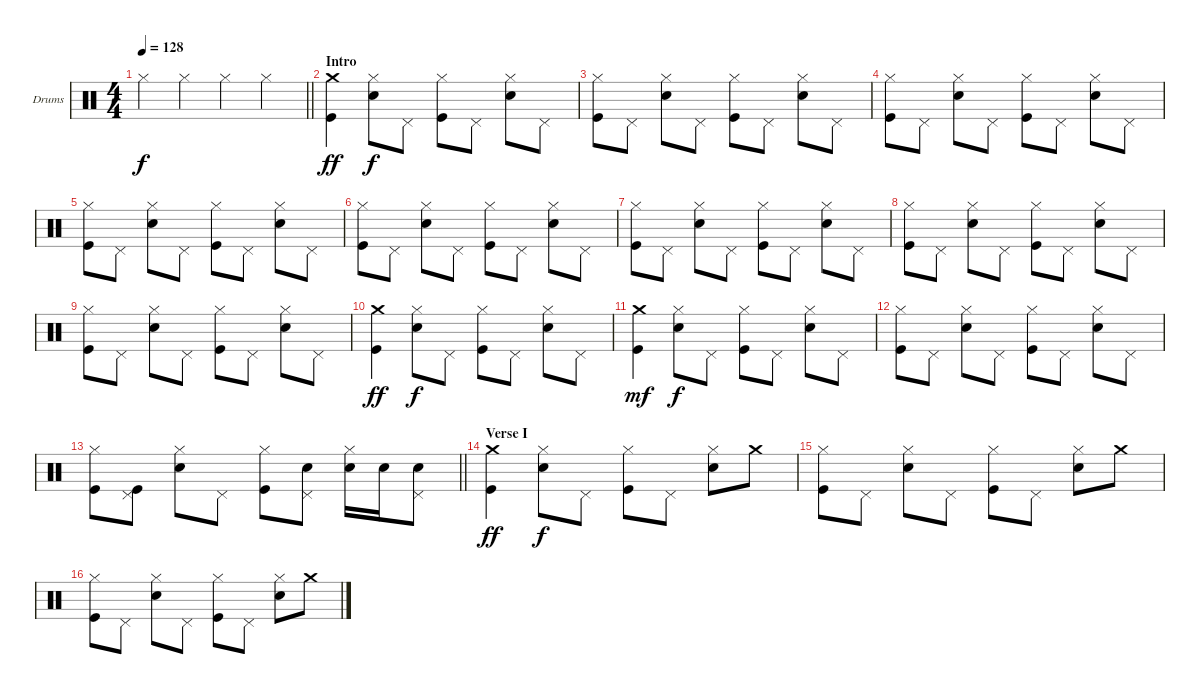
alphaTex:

\bracketExtendMode groupsimilarinstruments
\firstSystemTrackNameOrientation horizontal
\otherSystemsTrackNameOrientation horizontal
\track ("Drumkit" "Drums") {instrument percussion}
\staff {score}
\articulation defaults
\ts (4 4)
\beaming (8 2 2 2 2)
\tempo 128
\clef neutral
\barLineRight lightlight
\ks c "Hi-Hat (closed)".4{dy f} "Hi-Hat (closed)".4 "Hi-Hat (closed)".4 "Hi-Hat (closed)".4
|
\section ("" "Intro")
("Crash medium (hit)" "Kick (hit)").4{dy ff} ("Hi-Hat (closed)" "Snare (hit) 2").8{dy f} "Pedal Hi-Hat (hit)".8 ("Hi-Hat (closed)" "Kick (hit)").8 "Pedal Hi-Hat (hit)".8 ("Hi-Hat (closed)" "Snare (hit) 2").8 "Pedal Hi-Hat (hit)".8 |
("Hi-Hat (closed)" "Kick (hit)").8 "Pedal Hi-Hat (hit)".8 ("Hi-Hat (closed)" "Snare (hit) 2").8 "Pedal Hi-Hat (hit)".8 ("Hi-Hat (closed)" "Kick (hit)").8 "Pedal Hi-Hat (hit)".8 ("Hi-Hat (closed)" "Snare (hit) 2").8 "Pedal Hi-Hat (hit)".8 |
("Hi-Hat (closed)" "Kick (hit)").8 "Pedal Hi-Hat (hit)".8 ("Hi-Hat (closed)" "Snare (hit) 2").8 "Pedal Hi-Hat (hit)".8 ("Hi-Hat (closed)" "Kick (hit)").8 "Pedal Hi-Hat (hit)".8 ("Hi-Hat (closed)" "Snare (hit) 2").8 "Pedal Hi-Hat (hit)".8 |
("Hi-Hat (closed)" "Kick (hit)").8 "Pedal Hi-Hat (hit)".8 ("Hi-Hat (closed)" "Snare (hit) 2").8 "Pedal Hi-Hat (hit)".8 ("Hi-Hat (closed)" "Kick (hit)").8 "Pedal Hi-Hat (hit)".8 ("Hi-Hat (closed)" "Snare (hit) 2").8 "Pedal Hi-Hat (hit)".8 |
("Hi-Hat (closed)" "Kick (hit)").8 "Pedal Hi-Hat (hit)".8 ("Hi-Hat (closed)" "Snare (hit) 2").8 "Pedal Hi-Hat (hit)".8 ("Hi-Hat (closed)" "Kick (hit)").8 "Pedal Hi-Hat (hit)".8 ("Hi-Hat (closed)" "Snare (hit) 2").8 "Pedal Hi-Hat (hit)".8 |
("Hi-Hat (closed)" "Kick (hit)").8 "Pedal Hi-Hat (hit)".8 ("Hi-Hat (closed)" "Snare (hit) 2").8 "Pedal Hi-Hat (hit)".8 ("Hi-Hat (closed)" "Kick (hit)").8 "Pedal Hi-Hat (hit)".8 ("Hi-Hat (closed)" "Snare (hit) 2").8 "Pedal Hi-Hat (hit)".8 |
("Hi-Hat (closed)" "Kick (hit)").8 "Pedal Hi-Hat (hit)".8 ("Hi-Hat (closed)" "Snare (hit) 2").8 "Pedal Hi-Hat (hit)".8 ("Hi-Hat (closed)" "Kick (hit)").8 "Pedal Hi-Hat (hit)".8 ("Hi-Hat (closed)" "Snare (hit) 2").8 "Pedal Hi-Hat (hit)".8 |
("Hi-Hat (closed)" "Kick (hit)").8 "Pedal Hi-Hat (hit)".8 ("Hi-Hat (closed)" "Snare (hit) 2").8 "Pedal Hi-Hat (hit)".8 ("Hi-Hat (closed)" "Kick (hit)").8 "Pedal Hi-Hat (hit)".8 ("Hi-Hat (closed)" "Snare (hit) 2").8 "Pedal Hi-Hat (hit)".8 |
("Crash medium (hit)" "Kick (hit)").4{dy ff} ("Hi-Hat (closed)" "Snare (hit) 2").8{dy f} "Pedal Hi-Hat (hit)".8 ("Hi-Hat (closed)" "Kick (hit)").8 "Pedal Hi-Hat (hit)".8 ("Hi-Hat (closed)" "Snare (hit) 2").8 "Pedal Hi-Hat (hit)".8 |
("Crash medium (hit)" "Kick (hit)").4{dy mf} ("Hi-Hat (closed)" "Snare (hit) 2").8{dy f} "Pedal Hi-Hat (hit)".8 ("Hi-Hat (closed)" "Kick (hit)").8 "Pedal Hi-Hat (hit)".8 ("Hi-Hat (closed)" "Snare (hit) 2").8 "Pedal Hi-Hat (hit)".8 |
("Hi-Hat (closed)" "Kick (hit)").8 "Pedal Hi-Hat (hit)".8 ("Hi-Hat (closed)" "Snare (hit) 2").8 "Pedal Hi-Hat (hit)".8 ("Hi-Hat (closed)" "Kick (hit)").8 "Pedal Hi-Hat (hit)".8 ("Hi-Hat (closed)" "Snare (hit) 2").8 "Pedal Hi-Hat (hit)".8 |
\barLineRight lightlight
("Hi-Hat (closed)" "Kick (hit)").8 ("Pedal Hi-Hat (hit)" "Kick (hit)").8 ("Hi-Hat (closed)" "Snare (hit) 2").8 "Pedal Hi-Hat (hit)".8 ("Hi-Hat (closed)" "Kick (hit)").8 ("Pedal Hi-Hat (hit)" "Snare (hit) 2").8 ("Hi-Hat (closed)" "Snare (hit) 2").16 "Snare (hit) 2".16 ("Pedal Hi-Hat (hit)" "Snare (hit) 2").8 |
\section ("" "Verse I")
("Crash medium (hit)" "Kick (hit)").4{dy ff} ("Hi-Hat (closed)" "Snare (hit) 2").8{dy f} "Pedal Hi-Hat (hit)".8 ("Hi-Hat (closed)" "Kick (hit)").8 "Pedal Hi-Hat (hit)".8 ("Hi-Hat (closed)" "Snare (hit) 2").8 "Crash medium (hit)".8 |
("Hi-Hat (closed)" "Kick (hit)").8 "Pedal Hi-Hat (hit)".8 ("Hi-Hat (closed)" "Snare (hit) 2").8 "Pedal Hi-Hat (hit)".8 ("Hi-Hat (closed)" "Kick (hit)").8 "Pedal Hi-Hat (hit)".8 ("Hi-Hat (closed)" "Snare (hit) 2").8 "Crash medium (hit)".8 |
("Hi-Hat (closed)" "Kick (hit)").8 "Pedal Hi-Hat (hit)".8 ("Hi-Hat (closed)" "Snare (hit) 2").8 "Pedal Hi-Hat (hit)".8 ("Hi-Hat (closed)" "Kick (hit)").8 "Pedal Hi-Hat (hit)".8 ("Hi-Hat (closed)" "Snare (hit) 2").8 "Crash medium (hit)".8
